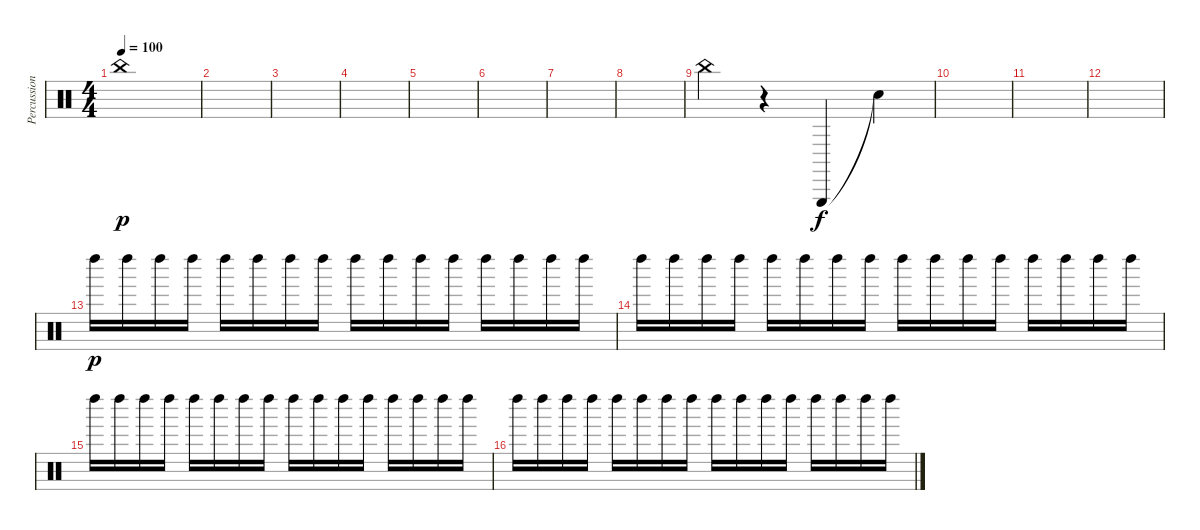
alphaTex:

\track ("Percussion" "Percussion") {instrument percussion}
\staff {score}
\articulation defaults
\ts (4 4)
\tempo 100
\clef neutral
\ks c "China (hit)".1{dy p}
|
|
|
|
|
|
|
|
"China (hit)".4 r.4 "Triangle (hit)".4{dy f} "Snare (hit)"{t}.4 |
|
|
|
"Left Maraca (hit)".16{dy p} "Left Maraca (hit)".16 "Left Maraca (hit)".16 "Left Maraca (hit)".16 "Left Maraca (hit)".16 "Left Maraca (hit)".16 "Left Maraca (hit)".16 "Left Maraca (hit)".16 "Left Maraca (hit)".16 "Left Maraca (hit)".16 "Left Maraca (hit)".16 "Left Maraca (hit)".16 "Left Maraca (hit)".16 "Left Maraca (hit)".16 "Left Maraca (hit)".16 "Left Maraca (hit)".16 |
"Left Maraca (hit)".16 "Left Maraca (hit)".16 "Left Maraca (hit)".16 "Left Maraca (hit)".16 "Left Maraca (hit)".16 "Left Maraca (hit)".16 "Left Maraca (hit)".16 "Left Maraca (hit)".16 "Left Maraca (hit)".16 "Left Maraca (hit)".16 "Left Maraca (hit)".16 "Left Maraca (hit)".16 "Left Maraca (hit)".16 "Left Maraca (hit)".16 "Left Maraca (hit)".16 "Left Maraca (hit)".16 |
"Left Maraca (hit)".16 "Left Maraca (hit)".16 "Left Maraca (hit)".16 "Left Maraca (hit)".16 "Left Maraca (hit)".16 "Left Maraca (hit)".16 "Left Maraca (hit)".16 "Left Maraca (hit)".16 "Left Maraca (hit)".16 "Left Maraca (hit)".16 "Left Maraca (hit)".16 "Left Maraca (hit)".16 "Left Maraca (hit)".16 "Left Maraca (hit)".16 "Left Maraca (hit)".16 "Left Maraca (hit)".16 |
"Left Maraca (hit)".16 "Left Maraca (hit)".16 "Left Maraca (hit)".16 "Left Maraca (hit)".16 "Left Maraca (hit)".16 "Left Maraca (hit)".16 "Left Maraca (hit)".16 "Left Maraca (hit)".16 "Left Maraca (hit)".16 "Left Maraca (hit)".16 "Left Maraca (hit)".16 "Left Maraca (hit)".16 "Left Maraca (hit)".16 "Left Maraca (hit)".16 "Left Maraca (hit)".16 "Left Maraca (hit)".16
